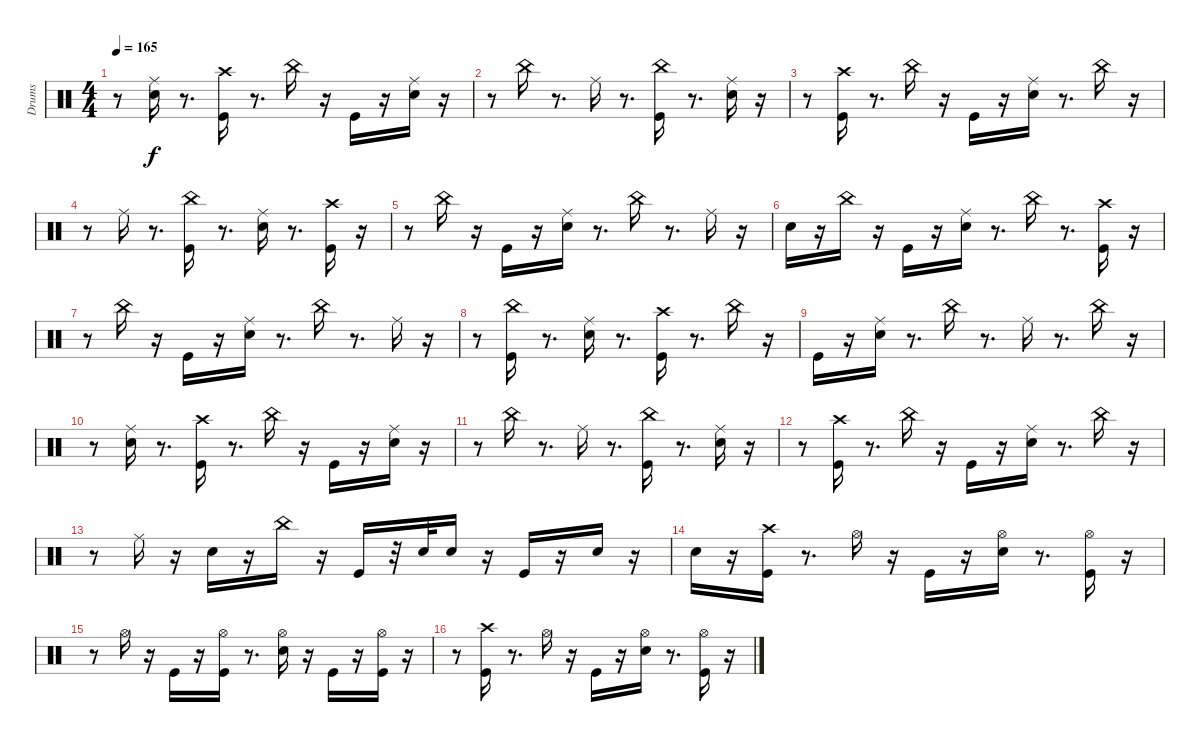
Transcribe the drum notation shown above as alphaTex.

\track ("Drums" "Drums") {instrument percussion}
\staff {score}
\articulation defaults
\ts (4 4)
\tempo 165
\clef neutral
\ks c
r.8{dy f} ("Electric Snare (hit)" "Ride (middle)").16 r.8{d} ("Kick (hit)" "Crash high (hit)").16 r.8{d} "China (hit)".16 r.16 "Kick (hit)".16 r.16 ("Electric Snare (hit)" "Ride (middle)").16 r.16 |
r.8 "China (hit)".16 r.8{d} "Ride (middle)".16 r.8{d} ("Kick (hit)" "China (hit)").16 r.8{d} ("Electric Snare (hit)" "Ride (middle)").16 r.16 |
r.8 ("Kick (hit)" "Crash high (hit)").16 r.8{d} "China (hit)".16 r.16 "Kick (hit)".16 r.16 ("Electric Snare (hit)" "Ride (middle)").16 r.8{d} "China (hit)".16 r.16 |
r.8 "Ride (middle)".16 r.8{d} ("Kick (hit)" "China (hit)").16 r.8{d} ("Electric Snare (hit)" "Ride (middle)").16 r.8{d} ("Kick (hit)" "Crash high (hit)").16 r.16 |
r.8 "China (hit)".16 r.16 "Kick (hit)".16 r.16 ("Electric Snare (hit)" "Ride (middle)").16 r.8{d} "China (hit)".16 r.8{d} "Ride (middle)".16 r.16 |
"Electric Snare (hit)".16 r.16 "China (hit)".16 r.16 "Kick (hit)".16 r.16 ("Electric Snare (hit)" "Ride (middle)").16 r.8{d} "China (hit)".16 r.8{d} ("Kick (hit)" "Crash high (hit)").16 r.16 |
r.8 "China (hit)".16 r.16 "Kick (hit)".16 r.16 ("Electric Snare (hit)" "Ride (middle)").16 r.8{d} "China (hit)".16 r.8{d} "Ride (middle)".16 r.16 |
r.8 ("Kick (hit)" "China (hit)").16 r.8{d} ("Electric Snare (hit)" "Ride (middle)").16 r.8{d} ("Kick (hit)" "Crash high (hit)").16 r.8{d} "China (hit)".16 r.16 |
"Kick (hit)".16 r.16 ("Electric Snare (hit)" "Ride (middle)").16 r.8{d} "China (hit)".16 r.8{d} "Ride (middle)".16 r.8{d} "China (hit)".16 r.16 |
r.8 ("Electric Snare (hit)" "Ride (middle)").16 r.8{d} ("Kick (hit)" "Crash high (hit)").16 r.8{d} "China (hit)".16 r.16 "Kick (hit)".16 r.16 ("Electric Snare (hit)" "Ride (middle)").16 r.16 |
r.8 "China (hit)".16 r.8{d} "Ride (middle)".16 r.8{d} ("Kick (hit)" "China (hit)").16 r.8{d} ("Electric Snare (hit)" "Ride (middle)").16 r.16 |
r.8 ("Kick (hit)" "Crash high (hit)").16 r.8{d} "China (hit)".16 r.16 "Kick (hit)".16 r.16 ("Electric Snare (hit)" "Ride (middle)").16 r.8{d} "China (hit)".16 r.16 |
r.8 "Ride (middle)".16 r.16 "Electric Snare (hit)".16 r.16 "China (hit)".16 r.16 "Kick (hit)".16 r.32 "Electric Snare (hit)".32 "Electric Snare (hit)".16 r.16 "Kick (hit)".16 r.16 "Electric Snare (hit)".16 r.16 |
"Electric Snare (hit)".16 r.16 ("Kick (hit)" "Crash high (hit)").16 r.8{d} "Hi-Hat (open)".16 r.16 "Kick (hit)".16 r.16 ("Electric Snare (hit)" "Hi-Hat (open)").16 r.8{d} ("Kick (hit)" "Hi-Hat (open)").16 r.16 |
r.8 "Hi-Hat (open)".16 r.16 "Kick (hit)".16 r.16 ("Kick (hit)" "Hi-Hat (open)").16 r.8{d} ("Electric Snare (hit)" "Hi-Hat (open)").16 r.16 "Kick (hit)".16 r.16 ("Kick (hit)" "Hi-Hat (open)").16 r.16 |
r.8 ("Kick (hit)" "Crash high (hit)").16 r.8{d} "Hi-Hat (open)".16 r.16 "Kick (hit)".16 r.16 ("Electric Snare (hit)" "Hi-Hat (open)").16 r.8{d} ("Kick (hit)" "Hi-Hat (open)").16 r.16
